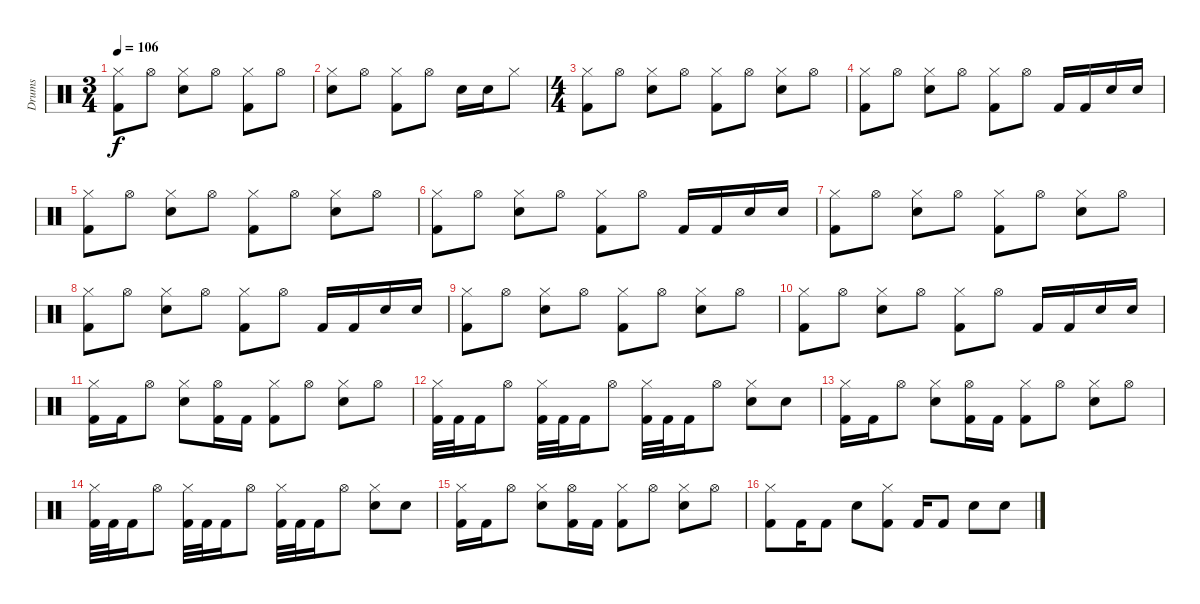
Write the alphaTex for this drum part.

\track ("Drums" "Drums") {instrument percussion}
\staff {score}
\articulation defaults
\ts (3 4)
\tempo 106
\clef neutral
\ks c
("Hi-Hat (closed)" "Kick (hit) 2").8{dy f} "Hi-Hat (open)".8 ("Hi-Hat (closed)" "Electric Snare (hit)").8 "Hi-Hat (open)".8 ("Hi-Hat (closed)" "Kick (hit) 2").8 "Hi-Hat (open)".8 |
("Hi-Hat (closed)" "Electric Snare (hit)").8 "Hi-Hat (open)".8 ("Hi-Hat (closed)" "Kick (hit) 2").8 "Hi-Hat (open)".8 "Electric Snare (hit)".16 "Electric Snare (hit)".16 "Hi-Hat (closed)".8 |
\ts (4 4)
("Hi-Hat (closed)" "Kick (hit) 2").8 "Hi-Hat (open)".8 ("Hi-Hat (closed)" "Electric Snare (hit)").8 "Hi-Hat (open)".8 ("Hi-Hat (closed)" "Kick (hit) 2").8 "Hi-Hat (open)".8 ("Hi-Hat (closed)" "Electric Snare (hit)").8 "Hi-Hat (open)".8 |
("Hi-Hat (closed)" "Kick (hit) 2").8 "Hi-Hat (open)".8 ("Hi-Hat (closed)" "Electric Snare (hit)").8 "Hi-Hat (open)".8 ("Hi-Hat (closed)" "Kick (hit) 2").8 "Hi-Hat (open)".8 "Kick (hit) 2".16 "Kick (hit) 2".16 "Electric Snare (hit)".16 "Electric Snare (hit)".16 |
("Hi-Hat (closed)" "Kick (hit) 2").8 "Hi-Hat (open)".8 ("Hi-Hat (closed)" "Electric Snare (hit)").8 "Hi-Hat (open)".8 ("Hi-Hat (closed)" "Kick (hit) 2").8 "Hi-Hat (open)".8 ("Hi-Hat (closed)" "Electric Snare (hit)").8 "Hi-Hat (open)".8 |
("Hi-Hat (closed)" "Kick (hit) 2").8 "Hi-Hat (open)".8 ("Hi-Hat (closed)" "Electric Snare (hit)").8 "Hi-Hat (open)".8 ("Hi-Hat (closed)" "Kick (hit) 2").8 "Hi-Hat (open)".8 "Kick (hit) 2".16 "Kick (hit) 2".16 "Electric Snare (hit)".16 "Electric Snare (hit)".16 |
("Hi-Hat (closed)" "Kick (hit) 2").8 "Hi-Hat (open)".8 ("Hi-Hat (closed)" "Electric Snare (hit)").8 "Hi-Hat (open)".8 ("Hi-Hat (closed)" "Kick (hit) 2").8 "Hi-Hat (open)".8 ("Hi-Hat (closed)" "Electric Snare (hit)").8 "Hi-Hat (open)".8 |
("Hi-Hat (closed)" "Kick (hit) 2").8 "Hi-Hat (open)".8 ("Hi-Hat (closed)" "Electric Snare (hit)").8 "Hi-Hat (open)".8 ("Hi-Hat (closed)" "Kick (hit) 2").8 "Hi-Hat (open)".8 "Kick (hit) 2".16 "Kick (hit) 2".16 "Electric Snare (hit)".16 "Electric Snare (hit)".16 |
("Hi-Hat (closed)" "Kick (hit) 2").8 "Hi-Hat (open)".8 ("Hi-Hat (closed)" "Electric Snare (hit)").8 "Hi-Hat (open)".8 ("Hi-Hat (closed)" "Kick (hit) 2").8 "Hi-Hat (open)".8 ("Hi-Hat (closed)" "Electric Snare (hit)").8 "Hi-Hat (open)".8 |
("Hi-Hat (closed)" "Kick (hit) 2").8 "Hi-Hat (open)".8 ("Hi-Hat (closed)" "Electric Snare (hit)").8 "Hi-Hat (open)".8 ("Hi-Hat (closed)" "Kick (hit) 2").8 "Hi-Hat (open)".8 "Kick (hit) 2".16 "Kick (hit) 2".16 "Electric Snare (hit)".16 "Electric Snare (hit)".16 |
("Hi-Hat (closed)" "Kick (hit) 2").16 "Kick (hit) 2".16 "Hi-Hat (open)".8 ("Hi-Hat (closed)" "Electric Snare (hit)").8 ("Kick (hit) 2" "Hi-Hat (open)").16 "Kick (hit) 2".16 ("Hi-Hat (closed)" "Kick (hit) 2").8 "Hi-Hat (open)".8 ("Hi-Hat (closed)" "Electric Snare (hit)").8 "Hi-Hat (open)".8 |
("Hi-Hat (closed)" "Kick (hit) 2").32 "Kick (hit) 2".32 "Kick (hit) 2".16 "Hi-Hat (open)".8 ("Hi-Hat (closed)" "Kick (hit) 2").32 "Kick (hit) 2".32 "Kick (hit) 2".16 "Hi-Hat (open)".8 ("Hi-Hat (closed)" "Kick (hit) 2").32 "Kick (hit) 2".32 "Kick (hit) 2".16 "Hi-Hat (open)".8 ("Hi-Hat (closed)" "Electric Snare (hit)").8 "Electric Snare (hit)".8 |
("Hi-Hat (closed)" "Kick (hit) 2").16 "Kick (hit) 2".16 "Hi-Hat (open)".8 ("Hi-Hat (closed)" "Electric Snare (hit)").8 ("Kick (hit) 2" "Hi-Hat (open)").16 "Kick (hit) 2".16 ("Hi-Hat (closed)" "Kick (hit) 2").8 "Hi-Hat (open)".8 ("Hi-Hat (closed)" "Electric Snare (hit)").8 "Hi-Hat (open)".8 |
("Hi-Hat (closed)" "Kick (hit) 2").32 "Kick (hit) 2".32 "Kick (hit) 2".16 "Hi-Hat (open)".8 ("Hi-Hat (closed)" "Kick (hit) 2").32 "Kick (hit) 2".32 "Kick (hit) 2".16 "Hi-Hat (open)".8 ("Hi-Hat (closed)" "Kick (hit) 2").32 "Kick (hit) 2".32 "Kick (hit) 2".16 "Hi-Hat (open)".8 ("Hi-Hat (closed)" "Electric Snare (hit)").8 "Electric Snare (hit)".8 |
("Hi-Hat (closed)" "Kick (hit) 2").16 "Kick (hit) 2".16 "Hi-Hat (open)".8 ("Hi-Hat (closed)" "Electric Snare (hit)").8 ("Kick (hit) 2" "Hi-Hat (open)").16 "Kick (hit) 2".16 ("Hi-Hat (closed)" "Kick (hit) 2").8 "Hi-Hat (open)".8 ("Hi-Hat (closed)" "Electric Snare (hit)").8 "Hi-Hat (open)".8 |
("Hi-Hat (closed)" "Kick (hit) 2").8 "Kick (hit) 2".16 "Kick (hit) 2".8 "Electric Snare (hit)".8 ("Hi-Hat (closed)" "Kick (hit) 2").8 "Kick (hit) 2".16 "Kick (hit) 2".8 "Electric Snare (hit)".8 "Electric Snare (hit)".8
